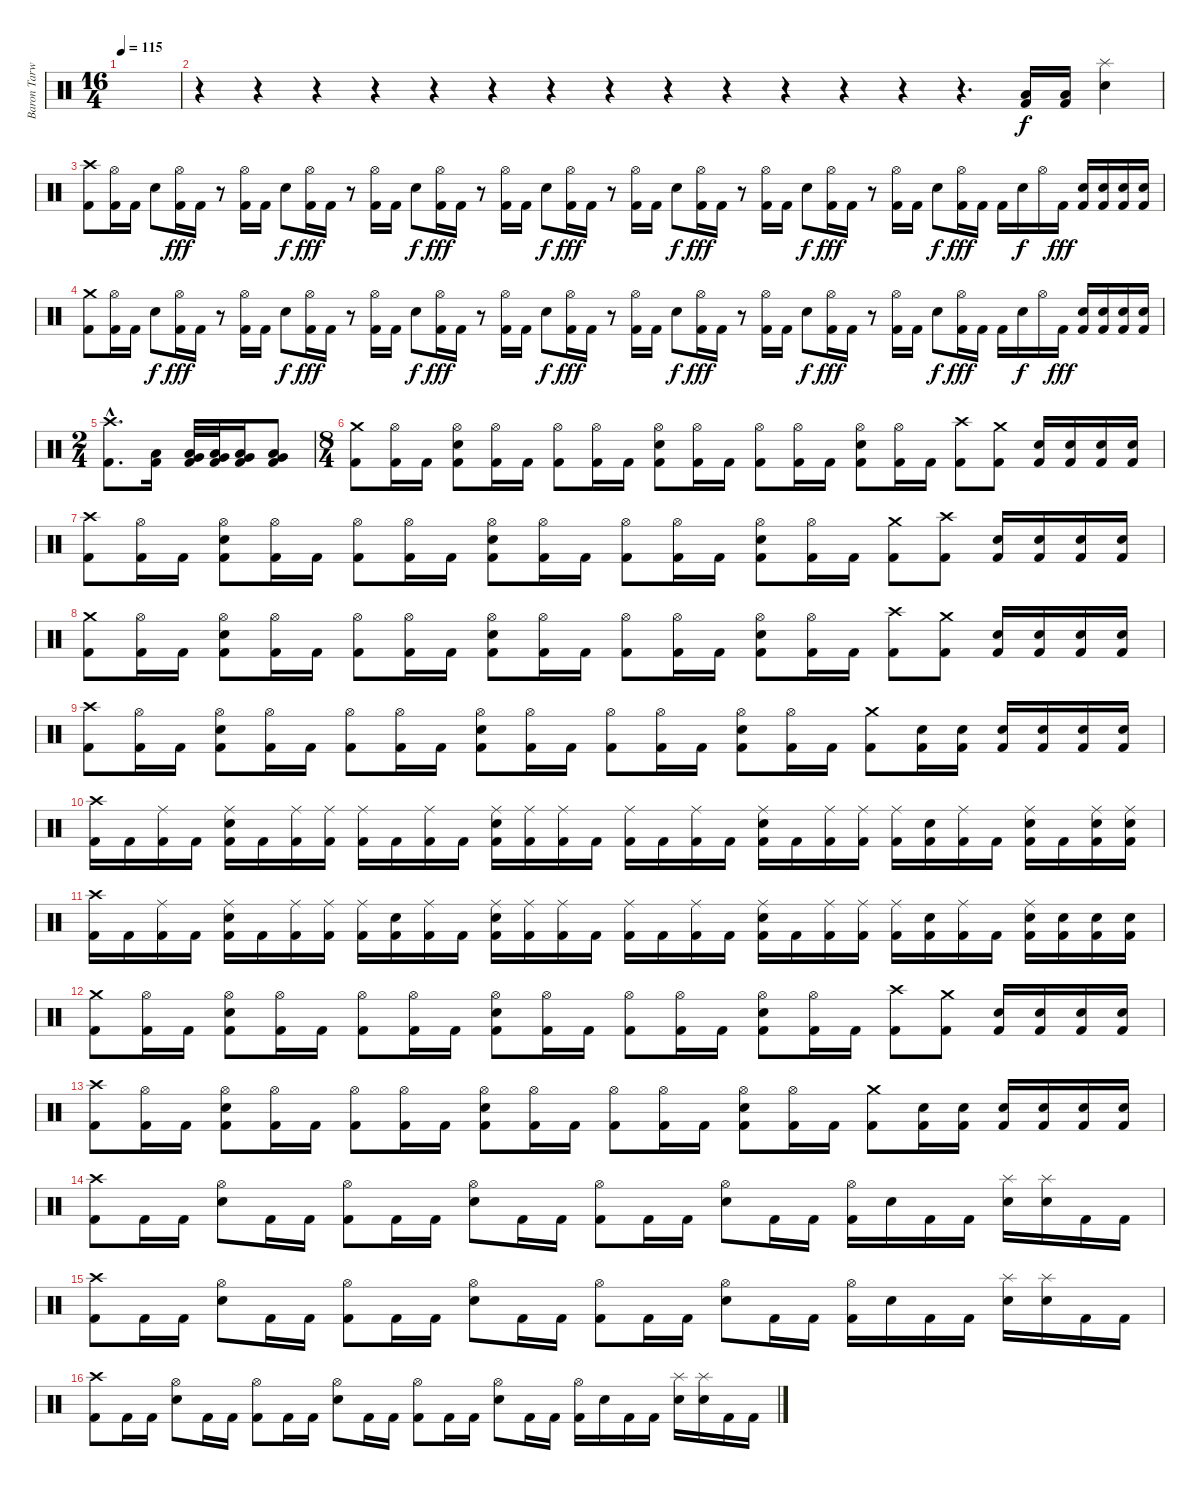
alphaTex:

\track ("Baron Tarwonen" "Baron Tarw") {instrument percussion}
\staff {score}
\articulation defaults
\ts (16 4)
\tempo 115
\clef neutral
\ks c
|
r.4 r.4 r.4 r.4 r.4 r.4 r.4 r.4 r.4 r.4 r.4 r.4 r.4 r.4{d} ("Low Floor Tom (hit)" "Kick (hit) 2").16 ("Low Floor Tom (hit)" "Kick (hit) 2").16 ("Splash (hit)" "Snare (hit) 2").4 |
("Crash high (hit)" "Kick (hit) 2").8 ("Hi-Hat (open)" "Kick (hit) 2").16 "Kick (hit) 2".16 "Snare (hit) 2".8{dy f} ("Hi-Hat (open)" "Kick (hit) 2").16{dy fff} "Kick (hit) 2".16 r.8 ("Hi-Hat (open)" "Kick (hit) 2").16 "Kick (hit) 2".16 "Snare (hit) 2".8{dy f} ("Hi-Hat (open)" "Kick (hit) 2").16{dy fff} "Kick (hit) 2".16 r.8 ("Hi-Hat (open)" "Kick (hit) 2").16 "Kick (hit) 2".16 "Snare (hit) 2".8{dy f} ("Hi-Hat (open)" "Kick (hit) 2").16{dy fff} "Kick (hit) 2".16 r.8 ("Hi-Hat (open)" "Kick (hit) 2").16 "Kick (hit) 2".16 "Snare (hit) 2".8{dy f} ("Hi-Hat (open)" "Kick (hit) 2").16{dy fff} "Kick (hit) 2".16 r.8 ("Hi-Hat (open)" "Kick (hit) 2").16 "Kick (hit) 2".16 "Snare (hit) 2".8{dy f} ("Hi-Hat (open)" "Kick (hit) 2").16{dy fff} "Kick (hit) 2".16 r.8 ("Hi-Hat (open)" "Kick (hit) 2").16 "Kick (hit) 2".16 "Snare (hit) 2".8{dy f} ("Hi-Hat (open)" "Kick (hit) 2").16{dy fff} "Kick (hit) 2".16 r.8 ("Hi-Hat (open)" "Kick (hit) 2").16 "Kick (hit) 2".16 "Snare (hit) 2".8{dy f} ("Hi-Hat (open)" "Kick (hit) 2").16{dy fff} "Kick (hit) 2".16 "Kick (hit) 2".16 "Snare (hit) 2".16{dy f} "Hi-Hat (open)".16 "Kick (hit) 2".16{dy fff} ("Snare (hit) 2" "Kick (hit) 2").16 ("Snare (hit) 2" "Kick (hit) 2").16 ("Snare (hit) 2" "Kick (hit) 2").16 ("Snare (hit) 2" "Kick (hit) 2").16 |
("Crash medium (hit)" "Kick (hit) 2").8 ("Hi-Hat (open)" "Kick (hit) 2").16 "Kick (hit) 2".16 "Snare (hit) 2".8{dy f} ("Hi-Hat (open)" "Kick (hit) 2").16{dy fff} "Kick (hit) 2".16 r.8 ("Hi-Hat (open)" "Kick (hit) 2").16 "Kick (hit) 2".16 "Snare (hit) 2".8{dy f} ("Hi-Hat (open)" "Kick (hit) 2").16{dy fff} "Kick (hit) 2".16 r.8 ("Hi-Hat (open)" "Kick (hit) 2").16 "Kick (hit) 2".16 "Snare (hit) 2".8{dy f} ("Hi-Hat (open)" "Kick (hit) 2").16{dy fff} "Kick (hit) 2".16 r.8 ("Hi-Hat (open)" "Kick (hit) 2").16 "Kick (hit) 2".16 "Snare (hit) 2".8{dy f} ("Hi-Hat (open)" "Kick (hit) 2").16{dy fff} "Kick (hit) 2".16 r.8 ("Hi-Hat (open)" "Kick (hit) 2").16 "Kick (hit) 2".16 "Snare (hit) 2".8{dy f} ("Hi-Hat (open)" "Kick (hit) 2").16{dy fff} "Kick (hit) 2".16 r.8 ("Hi-Hat (open)" "Kick (hit) 2").16 "Kick (hit) 2".16 "Snare (hit) 2".8{dy f} ("Hi-Hat (open)" "Kick (hit) 2").16{dy fff} "Kick (hit) 2".16 r.8 ("Hi-Hat (open)" "Kick (hit) 2").16 "Kick (hit) 2".16 "Snare (hit) 2".8{dy f} ("Hi-Hat (open)" "Kick (hit) 2").16{dy fff} "Kick (hit) 2".16 "Kick (hit) 2".16 "Snare (hit) 2".16{dy f} "Hi-Hat (open)".16 "Kick (hit) 2".16{dy fff} ("Snare (hit) 2" "Kick (hit) 2").16 ("Snare (hit) 2" "Kick (hit) 2").16 ("Snare (hit) 2" "Kick (hit) 2").16 ("Snare (hit) 2" "Kick (hit) 2").16 |
\ts (2 4)
("Crash high (hit)"{hac} "Kick (hit) 2"{hac}).8{d} ("Low Floor Tom (hit)" "Kick (hit) 2").16 ("Very Low Tom (hit)" "Low Floor Tom (hit)" "Kick (hit) 2").32 ("Very Low Tom (hit)" "Low Floor Tom (hit)" "Kick (hit) 2").32 ("Very Low Tom (hit)" "Low Floor Tom (hit)" "Kick (hit) 2").16 ("Very Low Tom (hit)" "Low Floor Tom (hit)" "Kick (hit) 2").8 |
\ts (8 4)
("Crash medium (hit)" "Kick (hit) 2").8 ("Hi-Hat (open)" "Kick (hit) 2").16 "Kick (hit) 2".16 ("Hi-Hat (open)" "Snare (hit) 2" "Kick (hit) 2").8 ("Hi-Hat (open)" "Kick (hit) 2").16 "Kick (hit) 2".16 ("Hi-Hat (open)" "Kick (hit) 2").8 ("Hi-Hat (open)" "Kick (hit) 2").16 "Kick (hit) 2".16 ("Hi-Hat (open)" "Snare (hit) 2" "Kick (hit) 2").8 ("Hi-Hat (open)" "Kick (hit) 2").16 "Kick (hit) 2".16 ("Hi-Hat (open)" "Kick (hit) 2").8 ("Hi-Hat (open)" "Kick (hit) 2").16 "Kick (hit) 2".16 ("Hi-Hat (open)" "Snare (hit) 2" "Kick (hit) 2").8 ("Hi-Hat (open)" "Kick (hit) 2").16 "Kick (hit) 2".16 ("Crash high (hit)" "Kick (hit) 2").8 ("Crash medium (hit)" "Kick (hit) 2").8 ("Snare (hit) 2" "Kick (hit) 2").16 ("Snare (hit) 2" "Kick (hit) 2").16 ("Snare (hit) 2" "Kick (hit) 2").16 ("Snare (hit) 2" "Kick (hit) 2").16 |
("Crash high (hit)" "Kick (hit) 2").8 ("Hi-Hat (open)" "Kick (hit) 2").16 "Kick (hit) 2".16 ("Hi-Hat (open)" "Snare (hit) 2" "Kick (hit) 2").8 ("Hi-Hat (open)" "Kick (hit) 2").16 "Kick (hit) 2".16 ("Hi-Hat (open)" "Kick (hit) 2").8 ("Hi-Hat (open)" "Kick (hit) 2").16 "Kick (hit) 2".16 ("Hi-Hat (open)" "Snare (hit) 2" "Kick (hit) 2").8 ("Hi-Hat (open)" "Kick (hit) 2").16 "Kick (hit) 2".16 ("Hi-Hat (open)" "Kick (hit) 2").8 ("Hi-Hat (open)" "Kick (hit) 2").16 "Kick (hit) 2".16 ("Hi-Hat (open)" "Snare (hit) 2" "Kick (hit) 2").8 ("Hi-Hat (open)" "Kick (hit) 2").16 "Kick (hit) 2".16 ("Crash medium (hit)" "Kick (hit) 2").8 ("Crash high (hit)" "Kick (hit) 2").8 ("Snare (hit) 2" "Kick (hit) 2").16 ("Snare (hit) 2" "Kick (hit) 2").16 ("Snare (hit) 2" "Kick (hit) 2").16 ("Snare (hit) 2" "Kick (hit) 2").16 |
("Crash medium (hit)" "Kick (hit) 2").8 ("Hi-Hat (open)" "Kick (hit) 2").16 "Kick (hit) 2".16 ("Hi-Hat (open)" "Snare (hit) 2" "Kick (hit) 2").8 ("Hi-Hat (open)" "Kick (hit) 2").16 "Kick (hit) 2".16 ("Hi-Hat (open)" "Kick (hit) 2").8 ("Hi-Hat (open)" "Kick (hit) 2").16 "Kick (hit) 2".16 ("Hi-Hat (open)" "Snare (hit) 2" "Kick (hit) 2").8 ("Hi-Hat (open)" "Kick (hit) 2").16 "Kick (hit) 2".16 ("Hi-Hat (open)" "Kick (hit) 2").8 ("Hi-Hat (open)" "Kick (hit) 2").16 "Kick (hit) 2".16 ("Hi-Hat (open)" "Snare (hit) 2" "Kick (hit) 2").8 ("Hi-Hat (open)" "Kick (hit) 2").16 "Kick (hit) 2".16 ("Crash high (hit)" "Kick (hit) 2").8 ("Crash medium (hit)" "Kick (hit) 2").8 ("Snare (hit) 2" "Kick (hit) 2").16 ("Snare (hit) 2" "Kick (hit) 2").16 ("Snare (hit) 2" "Kick (hit) 2").16 ("Snare (hit) 2" "Kick (hit) 2").16 |
("Crash high (hit)" "Kick (hit) 2").8 ("Hi-Hat (open)" "Kick (hit) 2").16 "Kick (hit) 2".16 ("Hi-Hat (open)" "Snare (hit) 2" "Kick (hit) 2").8 ("Hi-Hat (open)" "Kick (hit) 2").16 "Kick (hit) 2".16 ("Hi-Hat (open)" "Kick (hit) 2").8 ("Hi-Hat (open)" "Kick (hit) 2").16 "Kick (hit) 2".16 ("Hi-Hat (open)" "Snare (hit) 2" "Kick (hit) 2").8 ("Hi-Hat (open)" "Kick (hit) 2").16 "Kick (hit) 2".16 ("Hi-Hat (open)" "Kick (hit) 2").8 ("Hi-Hat (open)" "Kick (hit) 2").16 "Kick (hit) 2".16 ("Hi-Hat (open)" "Snare (hit) 2" "Kick (hit) 2").8 ("Hi-Hat (open)" "Kick (hit) 2").16 "Kick (hit) 2".16 ("Crash medium (hit)" "Kick (hit) 2").8 ("Snare (hit) 2" "Kick (hit) 2").16 ("Snare (hit) 2" "Kick (hit) 2").16 ("Snare (hit) 2" "Kick (hit) 2").16 ("Snare (hit) 2" "Kick (hit) 2").16 ("Snare (hit) 2" "Kick (hit) 2").16 ("Snare (hit) 2" "Kick (hit) 2").16 |
("Crash high (hit)" "Kick (hit) 2").16 "Kick (hit) 2".16 ("Ride (middle)" "Kick (hit) 2").16 "Kick (hit) 2".16 ("Ride (middle)" "Snare (hit) 2" "Kick (hit) 2").16 "Kick (hit) 2".16 ("Ride (middle)" "Kick (hit) 2").16 ("Ride (middle)" "Kick (hit) 2").16 ("Ride (middle)" "Kick (hit) 2").16 "Kick (hit) 2".16 ("Ride (middle)" "Kick (hit) 2").16 "Kick (hit) 2".16 ("Ride (middle)" "Snare (hit) 2" "Kick (hit) 2").16 ("Ride (middle)" "Kick (hit) 2").16 ("Ride (middle)" "Kick (hit) 2").16 "Kick (hit) 2".16 ("Ride (middle)" "Kick (hit) 2").16 "Kick (hit) 2".16 ("Ride (middle)" "Kick (hit) 2").16 "Kick (hit) 2".16 ("Ride (middle)" "Snare (hit) 2" "Kick (hit) 2").16 "Kick (hit) 2".16 ("Ride (middle)" "Kick (hit) 2").16 ("Ride (middle)" "Kick (hit) 2").16 ("Ride (middle)" "Kick (hit) 2").16 ("Snare (hit) 2" "Kick (hit) 2").16 ("Ride (middle)" "Kick (hit) 2").16 "Kick (hit) 2".16 ("Ride (middle)" "Snare (hit) 2" "Kick (hit) 2").16 "Kick (hit) 2".16 ("Ride (middle)" "Snare (hit) 2" "Kick (hit) 2").16 ("Ride (middle)" "Snare (hit) 2" "Kick (hit) 2").16 |
("Crash high (hit)" "Kick (hit) 2").16 "Kick (hit) 2".16 ("Ride (middle)" "Kick (hit) 2").16 "Kick (hit) 2".16 ("Ride (middle)" "Snare (hit) 2" "Kick (hit) 2").16 "Kick (hit) 2".16 ("Ride (middle)" "Kick (hit) 2").16 ("Ride (middle)" "Kick (hit) 2").16 ("Ride (middle)" "Kick (hit) 2").16 ("Snare (hit) 2" "Kick (hit) 2").16 ("Ride (middle)" "Kick (hit) 2").16 "Kick (hit) 2".16 ("Ride (middle)" "Snare (hit) 2" "Kick (hit) 2").16 ("Ride (middle)" "Kick (hit) 2").16 ("Ride (middle)" "Kick (hit) 2").16 "Kick (hit) 2".16 ("Ride (middle)" "Kick (hit) 2").16 "Kick (hit) 2".16 ("Ride (middle)" "Kick (hit) 2").16 "Kick (hit) 2".16 ("Ride (middle)" "Snare (hit) 2" "Kick (hit) 2").16 "Kick (hit) 2".16 ("Ride (middle)" "Kick (hit) 2").16 ("Ride (middle)" "Kick (hit) 2").16 ("Ride (middle)" "Kick (hit) 2").16 ("Snare (hit) 2" "Kick (hit) 2").16 ("Ride (middle)" "Kick (hit) 2").16 "Kick (hit) 2".16 ("Ride (middle)" "Snare (hit) 2" "Kick (hit) 2").16 ("Snare (hit) 2" "Kick (hit) 2").16 ("Snare (hit) 2" "Kick (hit) 2").16 ("Snare (hit) 2" "Kick (hit) 2").16 |
("Crash medium (hit)" "Kick (hit) 2").8 ("Hi-Hat (open)" "Kick (hit) 2").16 "Kick (hit) 2".16 ("Hi-Hat (open)" "Snare (hit) 2" "Kick (hit) 2").8 ("Hi-Hat (open)" "Kick (hit) 2").16 "Kick (hit) 2".16 ("Hi-Hat (open)" "Kick (hit) 2").8 ("Hi-Hat (open)" "Kick (hit) 2").16 "Kick (hit) 2".16 ("Hi-Hat (open)" "Snare (hit) 2" "Kick (hit) 2").8 ("Hi-Hat (open)" "Kick (hit) 2").16 "Kick (hit) 2".16 ("Hi-Hat (open)" "Kick (hit) 2").8 ("Hi-Hat (open)" "Kick (hit) 2").16 "Kick (hit) 2".16 ("Hi-Hat (open)" "Snare (hit) 2" "Kick (hit) 2").8 ("Hi-Hat (open)" "Kick (hit) 2").16 "Kick (hit) 2".16 ("Crash high (hit)" "Kick (hit) 2").8 ("Crash medium (hit)" "Kick (hit) 2").8 ("Snare (hit) 2" "Kick (hit) 2").16 ("Snare (hit) 2" "Kick (hit) 2").16 ("Snare (hit) 2" "Kick (hit) 2").16 ("Snare (hit) 2" "Kick (hit) 2").16 |
("Crash high (hit)" "Kick (hit) 2").8 ("Hi-Hat (open)" "Kick (hit) 2").16 "Kick (hit) 2".16 ("Hi-Hat (open)" "Snare (hit) 2" "Kick (hit) 2").8 ("Hi-Hat (open)" "Kick (hit) 2").16 "Kick (hit) 2".16 ("Hi-Hat (open)" "Kick (hit) 2").8 ("Hi-Hat (open)" "Kick (hit) 2").16 "Kick (hit) 2".16 ("Hi-Hat (open)" "Snare (hit) 2" "Kick (hit) 2").8 ("Hi-Hat (open)" "Kick (hit) 2").16 "Kick (hit) 2".16 ("Hi-Hat (open)" "Kick (hit) 2").8 ("Hi-Hat (open)" "Kick (hit) 2").16 "Kick (hit) 2".16 ("Hi-Hat (open)" "Snare (hit) 2" "Kick (hit) 2").8 ("Hi-Hat (open)" "Kick (hit) 2").16 "Kick (hit) 2".16 ("Crash medium (hit)" "Kick (hit) 2").8 ("Snare (hit) 2" "Kick (hit) 2").16 ("Snare (hit) 2" "Kick (hit) 2").16 ("Snare (hit) 2" "Kick (hit) 2").16 ("Snare (hit) 2" "Kick (hit) 2").16 ("Snare (hit) 2" "Kick (hit) 2").16 ("Snare (hit) 2" "Kick (hit) 2").16 |
("Crash high (hit)" "Kick (hit) 2").8 "Kick (hit) 2".16 "Kick (hit) 2".16 ("Hi-Hat (open)" "Snare (hit) 2").8 "Kick (hit) 2".16 "Kick (hit) 2".16 ("Hi-Hat (open)" "Kick (hit) 2").8 "Kick (hit) 2".16 "Kick (hit) 2".16 ("Hi-Hat (open)" "Snare (hit) 2").8 "Kick (hit) 2".16 "Kick (hit) 2".16 ("Hi-Hat (open)" "Kick (hit) 2").8 "Kick (hit) 2".16 "Kick (hit) 2".16 ("Hi-Hat (open)" "Snare (hit) 2").8 "Kick (hit) 2".16 "Kick (hit) 2".16 ("Hi-Hat (open)" "Kick (hit) 2").16 "Snare (hit) 2".16 "Kick (hit) 2".16 "Kick (hit) 2".16 ("Splash (hit)" "Snare (hit) 2").16 ("Splash (hit)" "Snare (hit) 2").16 "Kick (hit) 2".16 "Kick (hit) 2".16 |
("Crash high (hit)" "Kick (hit) 2").8 "Kick (hit) 2".16 "Kick (hit) 2".16 ("Hi-Hat (open)" "Snare (hit) 2").8 "Kick (hit) 2".16 "Kick (hit) 2".16 ("Hi-Hat (open)" "Kick (hit) 2").8 "Kick (hit) 2".16 "Kick (hit) 2".16 ("Hi-Hat (open)" "Snare (hit) 2").8 "Kick (hit) 2".16 "Kick (hit) 2".16 ("Hi-Hat (open)" "Kick (hit) 2").8 "Kick (hit) 2".16 "Kick (hit) 2".16 ("Hi-Hat (open)" "Snare (hit) 2").8 "Kick (hit) 2".16 "Kick (hit) 2".16 ("Hi-Hat (open)" "Kick (hit) 2").16 "Snare (hit) 2".16 "Kick (hit) 2".16 "Kick (hit) 2".16 ("Splash (hit)" "Snare (hit) 2").16 ("Splash (hit)" "Snare (hit) 2").16 "Kick (hit) 2".16 "Kick (hit) 2".16 |
("Crash high (hit)" "Kick (hit) 2").8 "Kick (hit) 2".16 "Kick (hit) 2".16 ("Hi-Hat (open)" "Snare (hit) 2").8 "Kick (hit) 2".16 "Kick (hit) 2".16 ("Hi-Hat (open)" "Kick (hit) 2").8 "Kick (hit) 2".16 "Kick (hit) 2".16 ("Hi-Hat (open)" "Snare (hit) 2").8 "Kick (hit) 2".16 "Kick (hit) 2".16 ("Hi-Hat (open)" "Kick (hit) 2").8 "Kick (hit) 2".16 "Kick (hit) 2".16 ("Hi-Hat (open)" "Snare (hit) 2").8 "Kick (hit) 2".16 "Kick (hit) 2".16 ("Hi-Hat (open)" "Kick (hit) 2").16 "Snare (hit) 2".16 "Kick (hit) 2".16 "Kick (hit) 2".16 ("Splash (hit)" "Snare (hit) 2").16 ("Splash (hit)" "Snare (hit) 2").16 "Kick (hit) 2".16 "Kick (hit) 2".16
